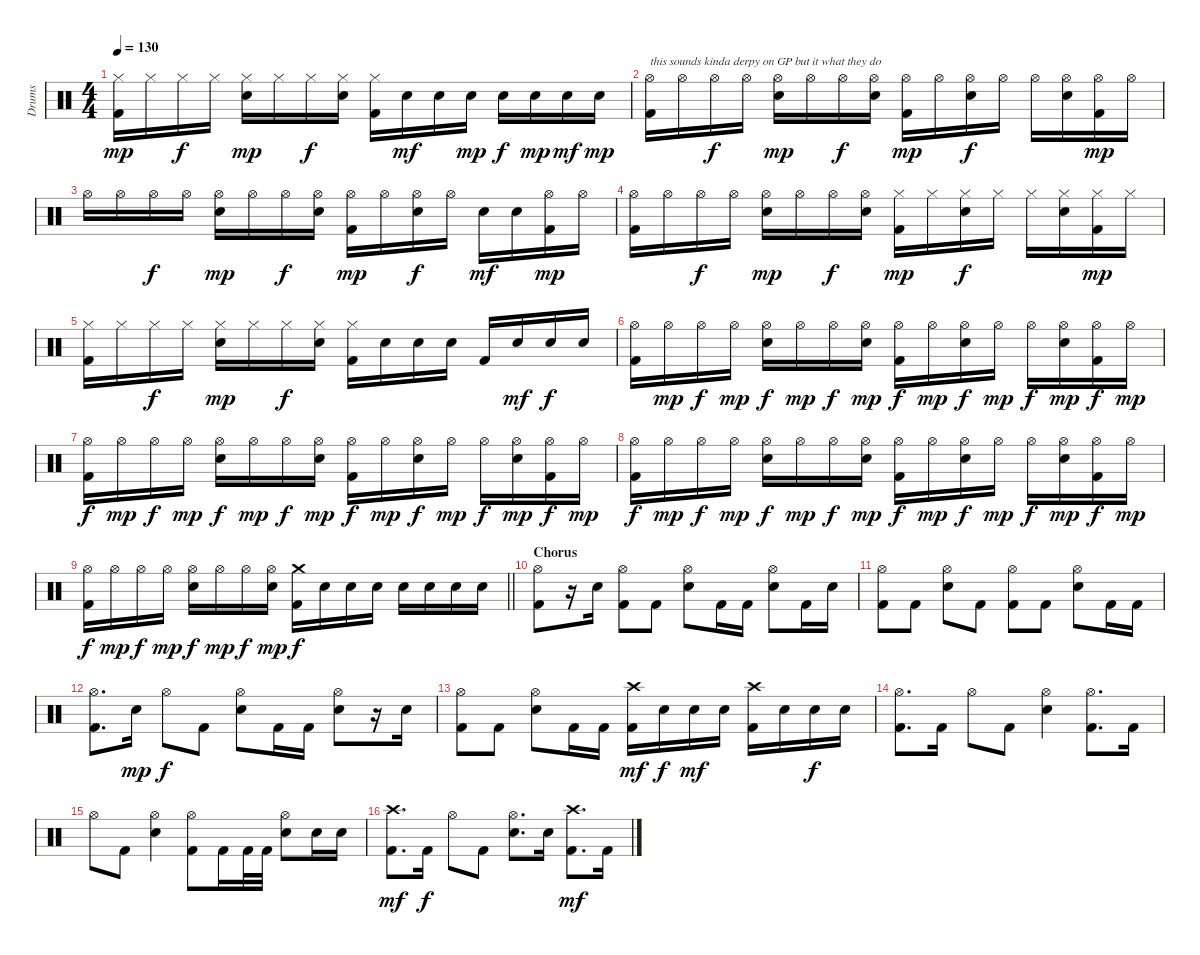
\track ("Drums" "Drums") {instrument percussion}
\staff {score}
\articulation defaults
\ts (4 4)
\tempo 130
\clef neutral
\ks c
("Hi-Hat (closed)" "Kick (hit) 2").16{dy mp} "Hi-Hat (closed)".16 "Hi-Hat (closed)".16{dy f} "Hi-Hat (closed)".16 ("Hi-Hat (closed)" "Snare (hit) 2").16{dy mp} "Hi-Hat (closed)".16 "Hi-Hat (closed)".16{dy f} ("Hi-Hat (closed)" "Snare (hit) 2").16 ("Hi-Hat (closed)" "Kick (hit) 2").16 "Snare (hit) 2".16{dy mf} "Snare (hit) 2".16 "Snare (hit) 2".16{dy mp} "Snare (hit) 2".16{dy f} "Snare (hit) 2".16{dy mp} "Snare (hit) 2".16{dy mf} "Snare (hit) 2".16{dy mp} |
("Hi-Hat (open)" "Kick (hit) 2").16{txt "this sounds kinda derpy on GP but it what they do"} "Hi-Hat (open)".16 "Hi-Hat (open)".16{dy f} "Hi-Hat (open)".16 ("Hi-Hat (open)" "Snare (hit) 2").16{dy mp} "Hi-Hat (open)".16 "Hi-Hat (open)".16{dy f} ("Hi-Hat (open)" "Snare (hit) 2").16 ("Hi-Hat (open)" "Kick (hit) 2").16{dy mp} "Hi-Hat (open)".16 ("Hi-Hat (open)" "Snare (hit) 2").16{dy f} "Hi-Hat (open)".16 "Hi-Hat (open)".16 ("Hi-Hat (open)" "Snare (hit) 2").16 ("Hi-Hat (open)" "Kick (hit) 2").16{dy mp} "Hi-Hat (open)".16 |
"Hi-Hat (open)".16 "Hi-Hat (open)".16 "Hi-Hat (open)".16{dy f} "Hi-Hat (open)".16 ("Hi-Hat (open)" "Snare (hit) 2").16{dy mp} "Hi-Hat (open)".16 "Hi-Hat (open)".16{dy f} ("Hi-Hat (open)" "Snare (hit) 2").16 ("Hi-Hat (open)" "Kick (hit) 2").16{dy mp} "Hi-Hat (open)".16 ("Hi-Hat (open)" "Snare (hit) 2").16{dy f} "Hi-Hat (open)".16 "Snare (hit) 2".16{dy mf} "Snare (hit) 2".16 ("Hi-Hat (open)" "Kick (hit) 2").16{dy mp} "Hi-Hat (open)".16 |
("Hi-Hat (open)" "Kick (hit) 2").16 "Hi-Hat (open)".16 "Hi-Hat (open)".16{dy f} "Hi-Hat (open)".16 ("Hi-Hat (open)" "Snare (hit) 2").16{dy mp} "Hi-Hat (open)".16 "Hi-Hat (open)".16{dy f} ("Hi-Hat (open)" "Snare (hit) 2").16 ("Hi-Hat (closed)" "Kick (hit) 2").16{dy mp} "Hi-Hat (closed)".16 ("Hi-Hat (closed)" "Snare (hit) 2").16{dy f} "Hi-Hat (closed)".16 "Hi-Hat (closed)".16 ("Hi-Hat (closed)" "Snare (hit) 2").16 ("Hi-Hat (closed)" "Kick (hit) 2").16{dy mp} "Hi-Hat (closed)".16 |
("Hi-Hat (closed)" "Kick (hit) 2").16 "Hi-Hat (closed)".16 "Hi-Hat (closed)".16{dy f} "Hi-Hat (closed)".16 ("Hi-Hat (closed)" "Snare (hit) 2").16{dy mp} "Hi-Hat (closed)".16 "Hi-Hat (closed)".16{dy f} ("Hi-Hat (closed)" "Snare (hit) 2").16 ("Hi-Hat (closed)" "Kick (hit) 2").16 "Snare (hit) 2".16 "Snare (hit) 2".16 "Snare (hit) 2".16 "Kick (hit) 2".16 "Snare (hit) 2".16{dy mf} "Snare (hit) 2".16{dy f} "Snare (hit) 2".16 |
("Hi-Hat (open)" "Kick (hit) 2").16 "Hi-Hat (open)".16{dy mp} "Hi-Hat (open)".16{dy f} "Hi-Hat (open)".16{dy mp} ("Hi-Hat (open)" "Electric Snare (hit)").16{dy f} "Hi-Hat (open)".16{dy mp} "Hi-Hat (open)".16{dy f} ("Hi-Hat (open)" "Electric Snare (hit)").16{dy mp} ("Hi-Hat (open)" "Kick (hit) 2").16{dy f} "Hi-Hat (open)".16{dy mp} ("Hi-Hat (open)" "Electric Snare (hit)").16{dy f} "Hi-Hat (open)".16{dy mp} "Hi-Hat (open)".16{dy f} ("Hi-Hat (open)" "Electric Snare (hit)").16{dy mp} ("Hi-Hat (open)" "Kick (hit) 2").16{dy f} "Hi-Hat (open)".16{dy mp} |
("Hi-Hat (open)" "Kick (hit) 2").16{dy f} "Hi-Hat (open)".16{dy mp} "Hi-Hat (open)".16{dy f} "Hi-Hat (open)".16{dy mp} ("Hi-Hat (open)" "Electric Snare (hit)").16{dy f} "Hi-Hat (open)".16{dy mp} "Hi-Hat (open)".16{dy f} ("Hi-Hat (open)" "Electric Snare (hit)").16{dy mp} ("Hi-Hat (open)" "Kick (hit) 2").16{dy f} "Hi-Hat (open)".16{dy mp} ("Hi-Hat (open)" "Electric Snare (hit)").16{dy f} "Hi-Hat (open)".16{dy mp} "Hi-Hat (open)".16{dy f} ("Hi-Hat (open)" "Electric Snare (hit)").16{dy mp} ("Hi-Hat (open)" "Kick (hit) 2").16{dy f} "Hi-Hat (open)".16{dy mp} |
("Hi-Hat (open)" "Kick (hit) 2").16{dy f} "Hi-Hat (open)".16{dy mp} "Hi-Hat (open)".16{dy f} "Hi-Hat (open)".16{dy mp} ("Hi-Hat (open)" "Electric Snare (hit)").16{dy f} "Hi-Hat (open)".16{dy mp} "Hi-Hat (open)".16{dy f} ("Hi-Hat (open)" "Electric Snare (hit)").16{dy mp} ("Hi-Hat (open)" "Kick (hit) 2").16{dy f} "Hi-Hat (open)".16{dy mp} ("Hi-Hat (open)" "Electric Snare (hit)").16{dy f} "Hi-Hat (open)".16{dy mp} "Hi-Hat (open)".16{dy f} ("Hi-Hat (open)" "Electric Snare (hit)").16{dy mp} ("Hi-Hat (open)" "Kick (hit) 2").16{dy f} "Hi-Hat (open)".16{dy mp} |
\barLineRight lightlight
("Hi-Hat (open)" "Kick (hit) 2").16{dy f} "Hi-Hat (open)".16{dy mp} "Hi-Hat (open)".16{dy f} "Hi-Hat (open)".16{dy mp} ("Hi-Hat (open)" "Electric Snare (hit)").16{dy f} "Hi-Hat (open)".16{dy mp} "Hi-Hat (open)".16{dy f} ("Hi-Hat (open)" "Electric Snare (hit)").16{dy mp} ("Crash medium (hit)" "Kick (hit) 2").16{dy f} "Snare (hit) 2".16 "Snare (hit) 2".16 "Snare (hit) 2".16 "Snare (hit) 2".16 "Snare (hit) 2".16 "Snare (hit) 2".16 "Snare (hit) 2".16 |
\section ("" "Chorus")
("Hi-Hat (open)" "Kick (hit) 2").8 r.16 "Snare (hit) 2".16 ("Hi-Hat (open)" "Kick (hit) 2").8 "Kick (hit) 2".8 ("Hi-Hat (open)" "Snare (hit) 2").8 "Kick (hit) 2".16 "Kick (hit) 2".16 ("Hi-Hat (open)" "Snare (hit) 2").8 "Kick (hit) 2".16 "Snare (hit) 2".16 |
("Hi-Hat (open)" "Kick (hit) 2").8 "Kick (hit) 2".8 ("Hi-Hat (open)" "Snare (hit) 2").8 "Kick (hit) 2".8 ("Hi-Hat (open)" "Kick (hit) 2").8 "Kick (hit) 2".8 ("Hi-Hat (open)" "Snare (hit) 2").8 "Kick (hit) 2".16 "Kick (hit) 2".16 |
("Hi-Hat (open)" "Kick (hit) 2").8{d} "Snare (hit) 2".16{dy mp} "Hi-Hat (open)".8{dy f} "Kick (hit) 2".8 ("Hi-Hat (open)" "Snare (hit) 2").8 "Kick (hit) 2".16 "Kick (hit) 2".16 ("Hi-Hat (open)" "Snare (hit) 2").8 r.16 "Snare (hit) 2".16 |
("Hi-Hat (open)" "Kick (hit) 2").8 "Kick (hit) 2".8 ("Hi-Hat (open)" "Snare (hit) 2").8 "Kick (hit) 2".16 "Kick (hit) 2".16 ("Crash high (hit)" "Kick (hit) 2").16{dy mf} "Snare (hit) 2".16{dy f} "Snare (hit) 2".16{dy mf} "Snare (hit) 2".16 ("Crash high (hit)" "Kick (hit) 2").16 "Snare (hit) 2".16 "Snare (hit) 2".16{dy f} "Snare (hit) 2".16 |
("Hi-Hat (open)" "Kick (hit) 2").8{d} "Kick (hit) 2".16 "Hi-Hat (open)".8 "Kick (hit) 2".8 ("Hi-Hat (open)" "Snare (hit) 2").4 ("Hi-Hat (open)" "Kick (hit) 2").8{d} "Kick (hit) 2".16 |
"Hi-Hat (open)".8 "Kick (hit) 2".8 ("Hi-Hat (open)" "Snare (hit) 2").4 ("Hi-Hat (open)" "Kick (hit) 2").8 "Kick (hit) 2".16 "Kick (hit) 2".32 "Kick (hit) 2".32 ("Hi-Hat (open)" "Snare (hit) 2").8 "Snare (hit) 2".16 "Snare (hit) 2".16 |
("Crash high (hit)" "Kick (hit) 2").8{d dy mf} "Kick (hit) 2".16{dy f} "Hi-Hat (open)".8 "Kick (hit) 2".8 ("Hi-Hat (open)" "Snare (hit) 2").8{d} "Snare (hit) 2".16 ("Crash high (hit)" "Kick (hit) 2").8{d dy mf} "Kick (hit) 2".16
